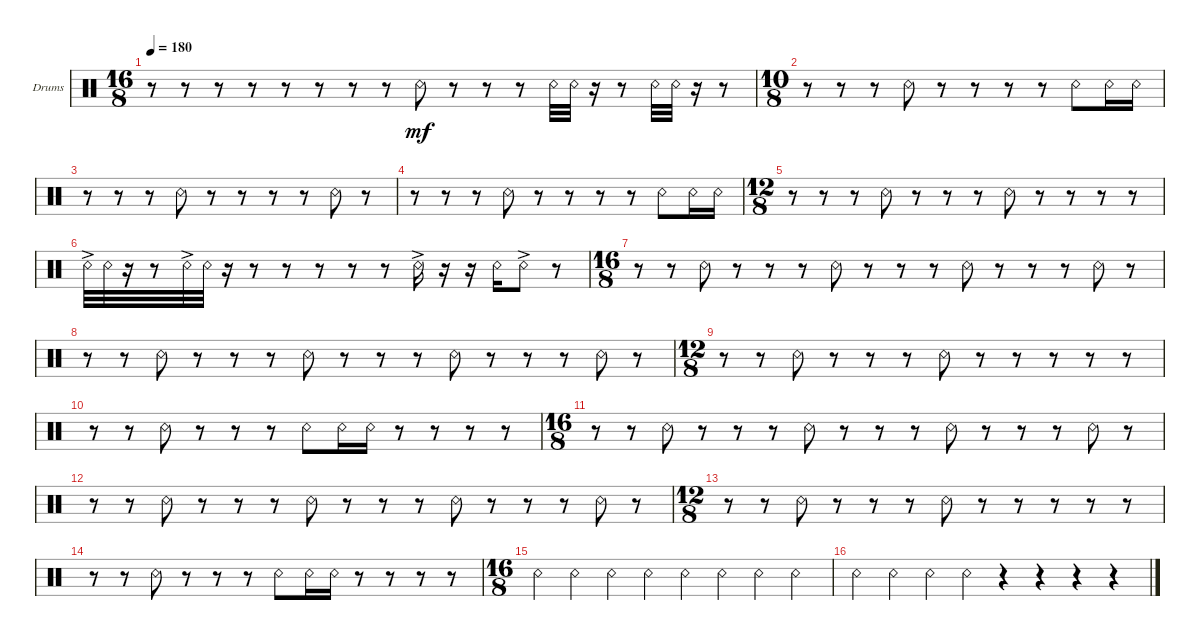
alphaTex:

\defaultSystemsLayout 4
\bracketExtendMode groupsimilarinstruments
\firstSystemTrackNameOrientation horizontal
\otherSystemsTrackNameOrientation horizontal
\track ("Snare 2" "Drums") {instrument percussion}
\staff {score}
\articulation defaults
\ts (16 8)
\tempo 180
\clef neutral
\ks c
r.8{dy mf} r.8 r.8 r.8 r.8 r.8 r.8 r.8 "Snare (rim shot)".8 r.8 r.8 r.8 "Snare (rim shot)".32 "Snare (rim shot)".32 r.16 r.8 "Snare (rim shot)".32 "Snare (rim shot)".32 r.16 r.8 |
\ts (10 8)
r.8 r.8 r.8 "Snare (rim shot)".8 r.8 r.8 r.8 r.8 "Snare (rim shot)".8 "Snare (rim shot)".16 "Snare (rim shot)".16 |
r.8 r.8 r.8 "Snare (rim shot)".8 r.8 r.8 r.8 r.8 "Snare (rim shot)".8 r.8 |
r.8 r.8 r.8 "Snare (rim shot)".8 r.8 r.8 r.8 r.8 "Snare (rim shot)".8 "Snare (rim shot)".16 "Snare (rim shot)".16 |
\ts (12 8)
r.8 r.8 r.8 "Snare (rim shot)".8 r.8 r.8 r.8 "Snare (rim shot)".8 r.8 r.8 r.8 r.8 |
"Snare (rim shot)"{ac}.32 "Snare (rim shot)".32 r.16 r.8 "Snare (rim shot)"{ac}.32 "Snare (rim shot)".32 r.16 r.8 r.8 r.8 r.8 r.8 "Snare (rim shot)"{ac}.16 r.16 r.16 "Snare (rim shot)".16 "Snare (rim shot)"{ac}.8 r.8 |
\ts (16 8)
r.8 r.8 "Snare (rim shot)".8 r.8 r.8 r.8 "Snare (rim shot)".8 r.8 r.8 r.8 "Snare (rim shot)".8 r.8 r.8 r.8 "Snare (rim shot)".8 r.8 |
r.8 r.8 "Snare (rim shot)".8 r.8 r.8 r.8 "Snare (rim shot)".8 r.8 r.8 r.8 "Snare (rim shot)".8 r.8 r.8 r.8 "Snare (rim shot)".8 r.8 |
\ts (12 8)
r.8 r.8 "Snare (rim shot)".8 r.8 r.8 r.8 "Snare (rim shot)".8 r.8 r.8 r.8 r.8 r.8 |
r.8 r.8 "Snare (rim shot)".8 r.8 r.8 r.8 "Snare (rim shot)".8 "Snare (rim shot)".16 "Snare (rim shot)".16 r.8 r.8 r.8 r.8 |
\ts (16 8)
r.8 r.8 "Snare (rim shot)".8 r.8 r.8 r.8 "Snare (rim shot)".8 r.8 r.8 r.8 "Snare (rim shot)".8 r.8 r.8 r.8 "Snare (rim shot)".8 r.8 |
r.8 r.8 "Snare (rim shot)".8 r.8 r.8 r.8 "Snare (rim shot)".8 r.8 r.8 r.8 "Snare (rim shot)".8 r.8 r.8 r.8 "Snare (rim shot)".8 r.8 |
\ts (12 8)
r.8 r.8 "Snare (rim shot)".8 r.8 r.8 r.8 "Snare (rim shot)".8 r.8 r.8 r.8 r.8 r.8 |
r.8 r.8 "Snare (rim shot)".8 r.8 r.8 r.8 "Snare (rim shot)".8 "Snare (rim shot)".16 "Snare (rim shot)".16 r.8 r.8 r.8 r.8 |
\ts (16 8)
"Snare (rim shot)".4 "Snare (rim shot)".4 "Snare (rim shot)".4 "Snare (rim shot)".4 "Snare (rim shot)".4 "Snare (rim shot)".4 "Snare (rim shot)".4 "Snare (rim shot)".4 |
"Snare (rim shot)".4 "Snare (rim shot)".4 "Snare (rim shot)".4 "Snare (rim shot)".4 r.4 r.4 r.4 r.4
